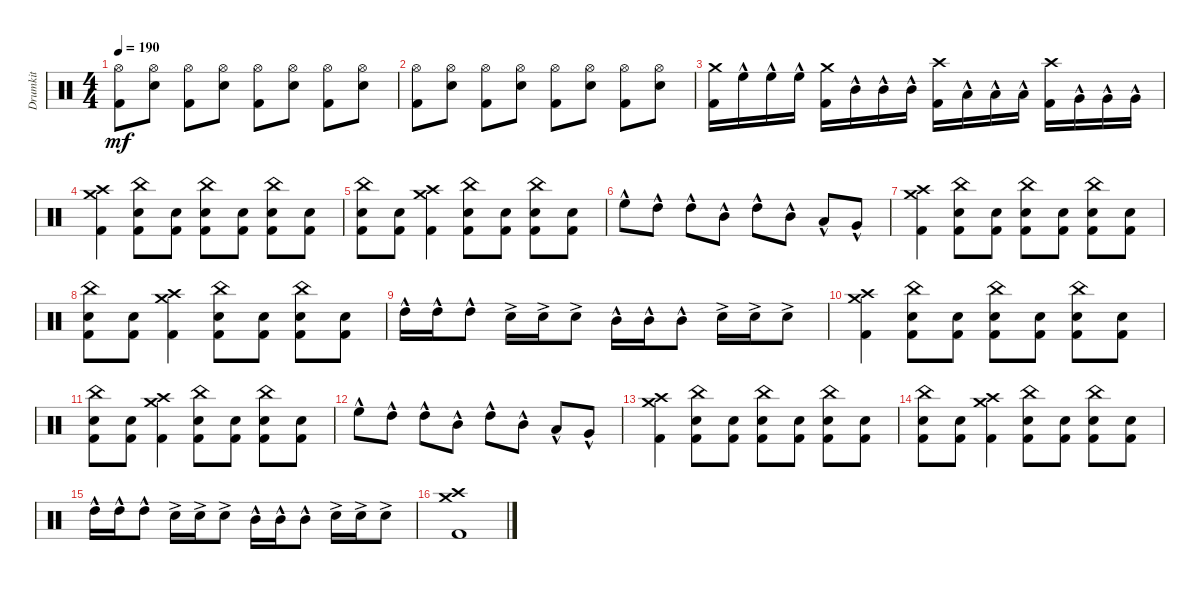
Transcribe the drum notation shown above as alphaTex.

\track ("Drumkit" "Drumkit") {instrument percussion}
\staff {score}
\articulation defaults
\ts (4 4)
\tempo 190
\clef neutral
\ks c
("Hi-Hat (open)" "Kick (hit) 2").8{dy mf} ("Hi-Hat (open)" "Snare (hit) 2").8 ("Hi-Hat (open)" "Kick (hit) 2").8 ("Hi-Hat (open)" "Snare (hit) 2").8 ("Hi-Hat (open)" "Kick (hit) 2").8 ("Hi-Hat (open)" "Snare (hit) 2").8 ("Hi-Hat (open)" "Kick (hit) 2").8 ("Hi-Hat (open)" "Snare (hit) 2").8 |
("Hi-Hat (open)" "Kick (hit) 2").8 ("Hi-Hat (open)" "Snare (hit) 2").8 ("Hi-Hat (open)" "Kick (hit) 2").8 ("Hi-Hat (open)" "Snare (hit) 2").8 ("Hi-Hat (open)" "Kick (hit) 2").8 ("Hi-Hat (open)" "Snare (hit) 2").8 ("Hi-Hat (open)" "Kick (hit) 2").8 ("Hi-Hat (open)" "Snare (hit) 2").8 |
("Crash medium (hit)" "Kick (hit) 2").16 "High Floor Tom (hit)"{hac}.16 "High Floor Tom (hit)"{hac}.16 "High Floor Tom (hit)"{hac}.16 ("Crash medium (hit)" "Kick (hit) 2").16 "Mid Tom (hit)"{hac}.16 "Mid Tom (hit)"{hac}.16 "Mid Tom (hit)"{hac}.16 ("Crash high (hit)" "Kick (hit) 2").16 "Low Tom (hit)"{hac}.16 "Low Tom (hit)"{hac}.16 "Low Tom (hit)"{hac}.16 ("Crash high (hit)" "Kick (hit) 2").16 "Very Low Tom (hit)"{hac}.16 "Very Low Tom (hit)"{hac}.16 "Very Low Tom (hit)"{hac}.16 |
("Crash high (hit)" "Crash medium (hit)" "Kick (hit) 2").4 ("China (hit)" "Snare (hit) 2" "Kick (hit) 2").8 ("Snare (hit) 2" "Kick (hit) 2").8 ("China (hit)" "Snare (hit) 2" "Kick (hit) 2").8 ("Snare (hit) 2" "Kick (hit) 2").8 ("China (hit)" "Snare (hit) 2" "Kick (hit) 2").8 ("Snare (hit) 2" "Kick (hit) 2").8 |
("China (hit)" "Snare (hit) 2" "Kick (hit) 2").8 ("Snare (hit) 2" "Kick (hit) 2").8 ("Crash high (hit)" "Crash medium (hit)" "Kick (hit) 2").4 ("China (hit)" "Snare (hit) 2" "Kick (hit) 2").8 ("Snare (hit) 2" "Kick (hit) 2").8 ("China (hit)" "Snare (hit) 2" "Kick (hit) 2").8 ("Snare (hit) 2" "Kick (hit) 2").8 |
"High Floor Tom (hit)"{hac}.8 "High Tom (hit)"{hac}.8 "High Tom (hit)"{hac}.8 "Mid Tom (hit)"{hac}.8 "High Tom (hit)"{hac}.8 "Mid Tom (hit)"{hac}.8 "Low Tom (hit)"{hac}.8 "Very Low Tom (hit)"{hac}.8 |
("Crash high (hit)" "Crash medium (hit)" "Kick (hit) 2").4 ("China (hit)" "Snare (hit) 2" "Kick (hit) 2").8 ("Snare (hit) 2" "Kick (hit) 2").8 ("China (hit)" "Snare (hit) 2" "Kick (hit) 2").8 ("Snare (hit) 2" "Kick (hit) 2").8 ("China (hit)" "Snare (hit) 2" "Kick (hit) 2").8 ("Snare (hit) 2" "Kick (hit) 2").8 |
("China (hit)" "Snare (hit) 2" "Kick (hit) 2").8 ("Snare (hit) 2" "Kick (hit) 2").8 ("Crash high (hit)" "Crash medium (hit)" "Kick (hit) 2").4 ("China (hit)" "Snare (hit) 2" "Kick (hit) 2").8 ("Snare (hit) 2" "Kick (hit) 2").8 ("China (hit)" "Snare (hit) 2" "Kick (hit) 2").8 ("Snare (hit) 2" "Kick (hit) 2").8 |
"High Tom (hit)"{hac}.16 "High Tom (hit)"{hac}.16 "High Tom (hit)"{hac}.8 "Snare (hit) 2"{ac}.16 "Snare (hit) 2"{ac}.16 "Snare (hit) 2"{ac}.8 "Mid Tom (hit)"{hac}.16 "Mid Tom (hit)"{hac}.16 "Mid Tom (hit)"{hac}.8 "Snare (hit) 2"{ac}.16 "Snare (hit) 2"{ac}.16 "Snare (hit) 2"{ac}.8 |
("Crash high (hit)" "Crash medium (hit)" "Kick (hit) 2").4 ("China (hit)" "Snare (hit) 2" "Kick (hit) 2").8 ("Snare (hit) 2" "Kick (hit) 2").8 ("China (hit)" "Snare (hit) 2" "Kick (hit) 2").8 ("Snare (hit) 2" "Kick (hit) 2").8 ("China (hit)" "Snare (hit) 2" "Kick (hit) 2").8 ("Snare (hit) 2" "Kick (hit) 2").8 |
("China (hit)" "Snare (hit) 2" "Kick (hit) 2").8 ("Snare (hit) 2" "Kick (hit) 2").8 ("Crash high (hit)" "Crash medium (hit)" "Kick (hit) 2").4 ("China (hit)" "Snare (hit) 2" "Kick (hit) 2").8 ("Snare (hit) 2" "Kick (hit) 2").8 ("China (hit)" "Snare (hit) 2" "Kick (hit) 2").8 ("Snare (hit) 2" "Kick (hit) 2").8 |
"High Floor Tom (hit)"{hac}.8 "High Tom (hit)"{hac}.8 "High Tom (hit)"{hac}.8 "Mid Tom (hit)"{hac}.8 "High Tom (hit)"{hac}.8 "Mid Tom (hit)"{hac}.8 "Low Tom (hit)"{hac}.8 "Very Low Tom (hit)"{hac}.8 |
("Crash high (hit)" "Crash medium (hit)" "Kick (hit) 2").4 ("China (hit)" "Snare (hit) 2" "Kick (hit) 2").8 ("Snare (hit) 2" "Kick (hit) 2").8 ("China (hit)" "Snare (hit) 2" "Kick (hit) 2").8 ("Snare (hit) 2" "Kick (hit) 2").8 ("China (hit)" "Snare (hit) 2" "Kick (hit) 2").8 ("Snare (hit) 2" "Kick (hit) 2").8 |
("China (hit)" "Snare (hit) 2" "Kick (hit) 2").8 ("Snare (hit) 2" "Kick (hit) 2").8 ("Crash high (hit)" "Crash medium (hit)" "Kick (hit) 2").4 ("China (hit)" "Snare (hit) 2" "Kick (hit) 2").8 ("Snare (hit) 2" "Kick (hit) 2").8 ("China (hit)" "Snare (hit) 2" "Kick (hit) 2").8 ("Snare (hit) 2" "Kick (hit) 2").8 |
"High Tom (hit)"{hac}.16 "High Tom (hit)"{hac}.16 "High Tom (hit)"{hac}.8 "Snare (hit) 2"{ac}.16 "Snare (hit) 2"{ac}.16 "Snare (hit) 2"{ac}.8 "Mid Tom (hit)"{hac}.16 "Mid Tom (hit)"{hac}.16 "Mid Tom (hit)"{hac}.8 "Snare (hit) 2"{ac}.16 "Snare (hit) 2"{ac}.16 "Snare (hit) 2"{ac}.8 |
("Crash high (hit)" "Crash medium (hit)" "Kick (hit) 2").1
